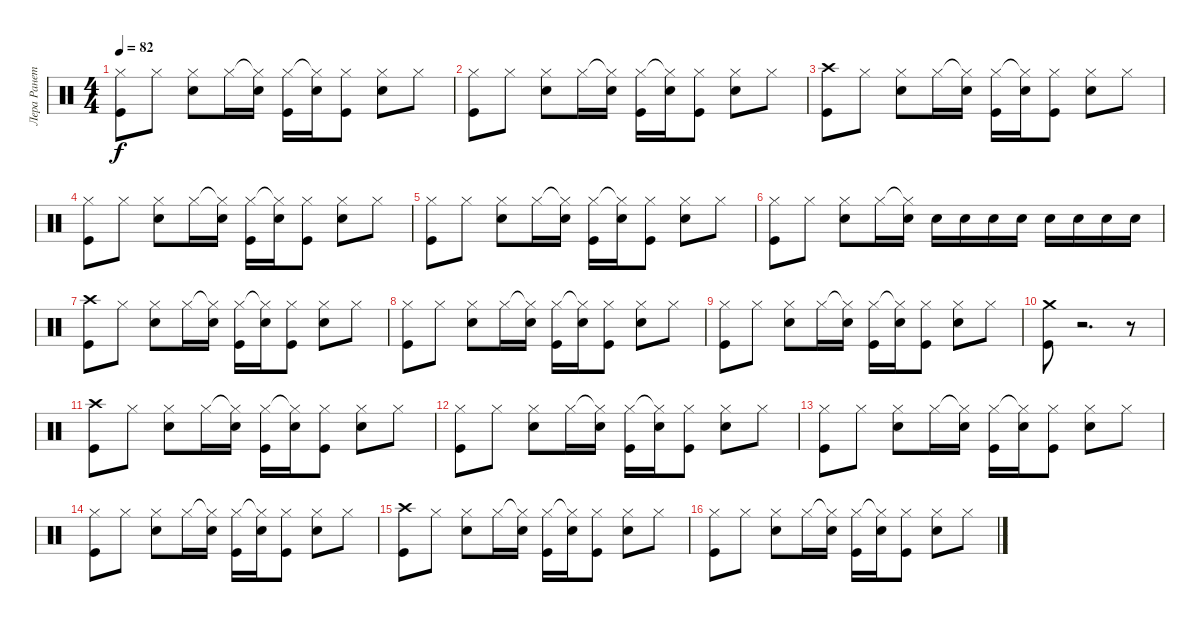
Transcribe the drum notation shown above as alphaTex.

\track ("Лера Ранетка" "Лера Ранет") {instrument percussion}
\staff {score}
\articulation defaults
\ts (4 4)
\tempo 82
\clef neutral
\ks c
("Hi-Hat (closed)" "Kick (hit)").8{dy f} "Hi-Hat (closed)".8 ("Hi-Hat (closed)" "Electric Snare (hit)").8 "Hi-Hat (closed)".16 ("Hi-Hat (closed)"{t} "Electric Snare (hit)").16 ("Hi-Hat (closed)" "Kick (hit)").16 ("Hi-Hat (closed)"{t} "Electric Snare (hit)").16 ("Hi-Hat (closed)" "Kick (hit)").8 ("Hi-Hat (closed)" "Electric Snare (hit)").8 "Hi-Hat (closed)".8 |
("Hi-Hat (closed)" "Kick (hit)").8 "Hi-Hat (closed)".8 ("Hi-Hat (closed)" "Electric Snare (hit)").8 "Hi-Hat (closed)".16 ("Hi-Hat (closed)"{t} "Electric Snare (hit)").16 ("Hi-Hat (closed)" "Kick (hit)").16 ("Hi-Hat (closed)"{t} "Electric Snare (hit)").16 ("Hi-Hat (closed)" "Kick (hit)").8 ("Hi-Hat (closed)" "Electric Snare (hit)").8 "Hi-Hat (closed)".8 |
("Crash high (hit)" "Kick (hit)").8 "Hi-Hat (closed)".8 ("Hi-Hat (closed)" "Electric Snare (hit)").8 "Hi-Hat (closed)".16 ("Hi-Hat (closed)"{t} "Electric Snare (hit)").16 ("Hi-Hat (closed)" "Kick (hit)").16 ("Hi-Hat (closed)"{t} "Electric Snare (hit)").16 ("Hi-Hat (closed)" "Kick (hit)").8 ("Hi-Hat (closed)" "Electric Snare (hit)").8 "Hi-Hat (closed)".8 |
("Hi-Hat (closed)" "Kick (hit)").8 "Hi-Hat (closed)".8 ("Hi-Hat (closed)" "Electric Snare (hit)").8 "Hi-Hat (closed)".16 ("Hi-Hat (closed)"{t} "Electric Snare (hit)").16 ("Hi-Hat (closed)" "Kick (hit)").16 ("Hi-Hat (closed)"{t} "Electric Snare (hit)").16 ("Hi-Hat (closed)" "Kick (hit)").8 ("Hi-Hat (closed)" "Electric Snare (hit)").8 "Hi-Hat (closed)".8 |
("Hi-Hat (closed)" "Kick (hit)").8 "Hi-Hat (closed)".8 ("Hi-Hat (closed)" "Electric Snare (hit)").8 "Hi-Hat (closed)".16 ("Hi-Hat (closed)"{t} "Electric Snare (hit)").16 ("Hi-Hat (closed)" "Kick (hit)").16 ("Hi-Hat (closed)"{t} "Electric Snare (hit)").16 ("Hi-Hat (closed)" "Kick (hit)").8 ("Hi-Hat (closed)" "Electric Snare (hit)").8 "Hi-Hat (closed)".8 |
("Hi-Hat (closed)" "Kick (hit)").8 "Hi-Hat (closed)".8 ("Hi-Hat (closed)" "Electric Snare (hit)").8 "Hi-Hat (closed)".16 ("Hi-Hat (closed)"{t} "Electric Snare (hit)").16 "Electric Snare (hit)".16 "Electric Snare (hit)".16 "Electric Snare (hit)".16 "Electric Snare (hit)".16 "Electric Snare (hit)".16 "Electric Snare (hit)".16 "Electric Snare (hit)".16 "Electric Snare (hit)".16 |
("Crash high (hit)" "Kick (hit)").8 "Hi-Hat (closed)".8 ("Hi-Hat (closed)" "Electric Snare (hit)").8 "Hi-Hat (closed)".16 ("Hi-Hat (closed)"{t} "Electric Snare (hit)").16 ("Hi-Hat (closed)" "Kick (hit)").16 ("Hi-Hat (closed)"{t} "Electric Snare (hit)").16 ("Hi-Hat (closed)" "Kick (hit)").8 ("Hi-Hat (closed)" "Electric Snare (hit)").8 "Hi-Hat (closed)".8 |
("Hi-Hat (closed)" "Kick (hit)").8 "Hi-Hat (closed)".8 ("Hi-Hat (closed)" "Electric Snare (hit)").8 "Hi-Hat (closed)".16 ("Hi-Hat (closed)"{t} "Electric Snare (hit)").16 ("Hi-Hat (closed)" "Kick (hit)").16 ("Hi-Hat (closed)"{t} "Electric Snare (hit)").16 ("Hi-Hat (closed)" "Kick (hit)").8 ("Hi-Hat (closed)" "Electric Snare (hit)").8 "Hi-Hat (closed)".8 |
("Hi-Hat (closed)" "Kick (hit)").8 "Hi-Hat (closed)".8 ("Hi-Hat (closed)" "Electric Snare (hit)").8 "Hi-Hat (closed)".16 ("Hi-Hat (closed)"{t} "Electric Snare (hit)").16 ("Hi-Hat (closed)" "Kick (hit)").16 ("Hi-Hat (closed)"{t} "Electric Snare (hit)").16 ("Hi-Hat (closed)" "Kick (hit)").8 ("Hi-Hat (closed)" "Electric Snare (hit)").8 "Hi-Hat (closed)".8 |
("Crash medium (hit)" "Kick (hit)").8 r.2{d} r.8 |
("Crash high (hit)" "Kick (hit)").8 "Hi-Hat (closed)".8 ("Hi-Hat (closed)" "Electric Snare (hit)").8 "Hi-Hat (closed)".16 ("Hi-Hat (closed)"{t} "Electric Snare (hit)").16 ("Hi-Hat (closed)" "Kick (hit)").16 ("Hi-Hat (closed)"{t} "Electric Snare (hit)").16 ("Hi-Hat (closed)" "Kick (hit)").8 ("Hi-Hat (closed)" "Electric Snare (hit)").8 "Hi-Hat (closed)".8 |
("Hi-Hat (closed)" "Kick (hit)").8 "Hi-Hat (closed)".8 ("Hi-Hat (closed)" "Electric Snare (hit)").8 "Hi-Hat (closed)".16 ("Hi-Hat (closed)"{t} "Electric Snare (hit)").16 ("Hi-Hat (closed)" "Kick (hit)").16 ("Hi-Hat (closed)"{t} "Electric Snare (hit)").16 ("Hi-Hat (closed)" "Kick (hit)").8 ("Hi-Hat (closed)" "Electric Snare (hit)").8 "Hi-Hat (closed)".8 |
("Hi-Hat (closed)" "Kick (hit)").8 "Hi-Hat (closed)".8 ("Hi-Hat (closed)" "Electric Snare (hit)").8 "Hi-Hat (closed)".16 ("Hi-Hat (closed)"{t} "Electric Snare (hit)").16 ("Hi-Hat (closed)" "Kick (hit)").16 ("Hi-Hat (closed)"{t} "Electric Snare (hit)").16 ("Hi-Hat (closed)" "Kick (hit)").8 ("Hi-Hat (closed)" "Electric Snare (hit)").8 "Hi-Hat (closed)".8 |
("Hi-Hat (closed)" "Kick (hit)").8 "Hi-Hat (closed)".8 ("Hi-Hat (closed)" "Electric Snare (hit)").8 "Hi-Hat (closed)".16 ("Hi-Hat (closed)"{t} "Electric Snare (hit)").16 ("Hi-Hat (closed)" "Kick (hit)").16 ("Hi-Hat (closed)"{t} "Electric Snare (hit)").16 ("Hi-Hat (closed)" "Kick (hit)").8 ("Hi-Hat (closed)" "Electric Snare (hit)").8 "Hi-Hat (closed)".8 |
("Crash high (hit)" "Kick (hit)").8 "Hi-Hat (closed)".8 ("Hi-Hat (closed)" "Electric Snare (hit)").8 "Hi-Hat (closed)".16 ("Hi-Hat (closed)"{t} "Electric Snare (hit)").16 ("Hi-Hat (closed)" "Kick (hit)").16 ("Hi-Hat (closed)"{t} "Electric Snare (hit)").16 ("Hi-Hat (closed)" "Kick (hit)").8 ("Hi-Hat (closed)" "Electric Snare (hit)").8 "Hi-Hat (closed)".8 |
("Hi-Hat (closed)" "Kick (hit)").8 "Hi-Hat (closed)".8 ("Hi-Hat (closed)" "Electric Snare (hit)").8 "Hi-Hat (closed)".16 ("Hi-Hat (closed)"{t} "Electric Snare (hit)").16 ("Hi-Hat (closed)" "Kick (hit)").16 ("Hi-Hat (closed)"{t} "Electric Snare (hit)").16 ("Hi-Hat (closed)" "Kick (hit)").8 ("Hi-Hat (closed)" "Electric Snare (hit)").8 "Hi-Hat (closed)".8
